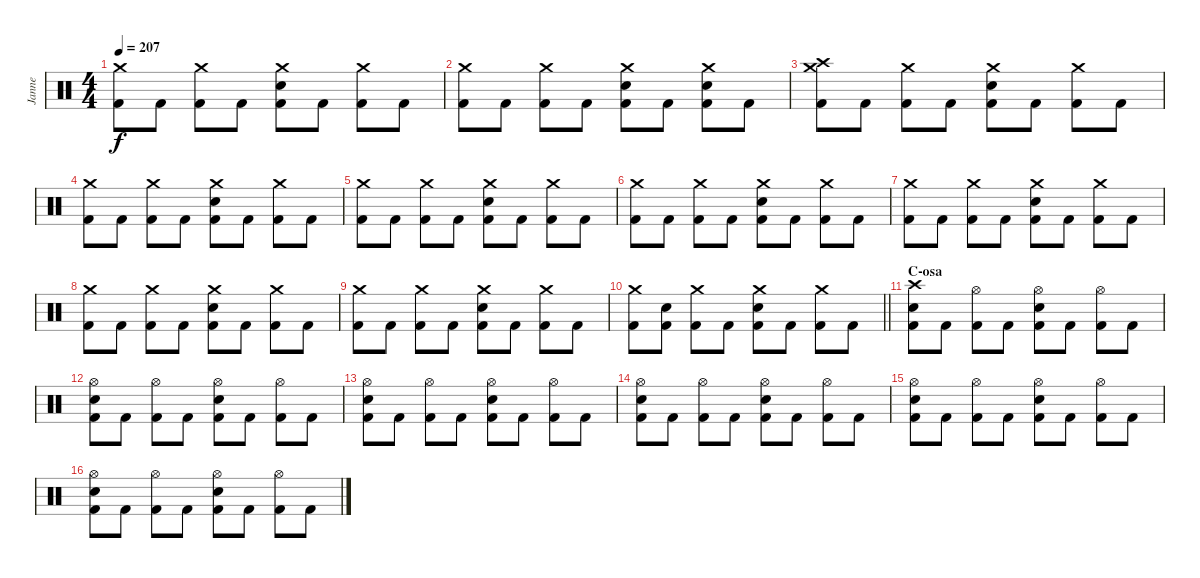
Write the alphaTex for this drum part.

\track ("Janne" "Janne") {instrument percussion}
\staff {score}
\articulation defaults
\ts (4 4)
\tempo 207
\clef neutral
\ks c
("Crash medium (hit)" "Kick (hit) 2").8{dy f} "Kick (hit) 2".8 ("Crash medium (hit)" "Kick (hit) 2").8 "Kick (hit) 2".8 ("Crash medium (hit)" "Electric Snare (hit)" "Kick (hit) 2").8 "Kick (hit) 2".8 ("Crash medium (hit)" "Kick (hit) 2").8 "Kick (hit) 2".8 |
("Crash medium (hit)" "Kick (hit) 2").8 "Kick (hit) 2".8 ("Crash medium (hit)" "Kick (hit) 2").8 "Kick (hit) 2".8 ("Crash medium (hit)" "Electric Snare (hit)" "Kick (hit) 2").8 "Kick (hit) 2".8 ("Crash medium (hit)" "Electric Snare (hit)" "Kick (hit) 2").8 "Kick (hit) 2".8 |
("Crash high (hit)" "Crash medium (hit)" "Kick (hit) 2").8 "Kick (hit) 2".8 ("Crash medium (hit)" "Kick (hit) 2").8 "Kick (hit) 2".8 ("Crash medium (hit)" "Electric Snare (hit)" "Kick (hit) 2").8 "Kick (hit) 2".8 ("Crash medium (hit)" "Kick (hit) 2").8 "Kick (hit) 2".8 |
("Crash medium (hit)" "Kick (hit) 2").8 "Kick (hit) 2".8 ("Crash medium (hit)" "Kick (hit) 2").8 "Kick (hit) 2".8 ("Crash medium (hit)" "Electric Snare (hit)" "Kick (hit) 2").8 "Kick (hit) 2".8 ("Crash medium (hit)" "Kick (hit) 2").8 "Kick (hit) 2".8 |
("Crash medium (hit)" "Kick (hit) 2").8 "Kick (hit) 2".8 ("Crash medium (hit)" "Kick (hit) 2").8 "Kick (hit) 2".8 ("Crash medium (hit)" "Electric Snare (hit)" "Kick (hit) 2").8 "Kick (hit) 2".8 ("Crash medium (hit)" "Kick (hit) 2").8 "Kick (hit) 2".8 |
("Crash medium (hit)" "Kick (hit) 2").8 "Kick (hit) 2".8 ("Crash medium (hit)" "Kick (hit) 2").8 "Kick (hit) 2".8 ("Crash medium (hit)" "Electric Snare (hit)" "Kick (hit) 2").8 "Kick (hit) 2".8 ("Crash medium (hit)" "Kick (hit) 2").8 "Kick (hit) 2".8 |
("Crash medium (hit)" "Kick (hit) 2").8 "Kick (hit) 2".8 ("Crash medium (hit)" "Kick (hit) 2").8 "Kick (hit) 2".8 ("Crash medium (hit)" "Electric Snare (hit)" "Kick (hit) 2").8 "Kick (hit) 2".8 ("Crash medium (hit)" "Kick (hit) 2").8 "Kick (hit) 2".8 |
("Crash medium (hit)" "Kick (hit) 2").8 "Kick (hit) 2".8 ("Crash medium (hit)" "Kick (hit) 2").8 "Kick (hit) 2".8 ("Crash medium (hit)" "Electric Snare (hit)" "Kick (hit) 2").8 "Kick (hit) 2".8 ("Crash medium (hit)" "Kick (hit) 2").8 "Kick (hit) 2".8 |
("Crash medium (hit)" "Kick (hit) 2").8 "Kick (hit) 2".8 ("Crash medium (hit)" "Kick (hit) 2").8 "Kick (hit) 2".8 ("Crash medium (hit)" "Electric Snare (hit)" "Kick (hit) 2").8 "Kick (hit) 2".8 ("Crash medium (hit)" "Kick (hit) 2").8 "Kick (hit) 2".8 |
\barLineRight lightlight
("Crash medium (hit)" "Kick (hit) 2").8 ("Electric Snare (hit)" "Kick (hit) 2").8 ("Crash medium (hit)" "Kick (hit) 2").8 "Kick (hit) 2".8 ("Crash medium (hit)" "Electric Snare (hit)" "Kick (hit) 2").8 "Kick (hit) 2".8 ("Crash medium (hit)" "Kick (hit) 2").8 "Kick (hit) 2".8 |
\section ("" "C-osa")
("Crash high (hit)" "Electric Snare (hit)" "Kick (hit) 2").8 "Kick (hit) 2".8 ("Hi-Hat (open)" "Kick (hit) 2").8 "Kick (hit) 2".8 ("Hi-Hat (open)" "Electric Snare (hit)" "Kick (hit) 2").8 "Kick (hit) 2".8 ("Hi-Hat (open)" "Kick (hit) 2").8 "Kick (hit) 2".8 |
("Hi-Hat (open)" "Electric Snare (hit)" "Kick (hit) 2").8 "Kick (hit) 2".8 ("Hi-Hat (open)" "Kick (hit) 2").8 "Kick (hit) 2".8 ("Hi-Hat (open)" "Electric Snare (hit)" "Kick (hit) 2").8 "Kick (hit) 2".8 ("Hi-Hat (open)" "Kick (hit) 2").8 "Kick (hit) 2".8 |
("Hi-Hat (open)" "Electric Snare (hit)" "Kick (hit) 2").8 "Kick (hit) 2".8 ("Hi-Hat (open)" "Kick (hit) 2").8 "Kick (hit) 2".8 ("Hi-Hat (open)" "Electric Snare (hit)" "Kick (hit) 2").8 "Kick (hit) 2".8 ("Hi-Hat (open)" "Kick (hit) 2").8 "Kick (hit) 2".8 |
("Hi-Hat (open)" "Electric Snare (hit)" "Kick (hit) 2").8 "Kick (hit) 2".8 ("Hi-Hat (open)" "Kick (hit) 2").8 "Kick (hit) 2".8 ("Hi-Hat (open)" "Electric Snare (hit)" "Kick (hit) 2").8 "Kick (hit) 2".8 ("Hi-Hat (open)" "Kick (hit) 2").8 "Kick (hit) 2".8 |
("Hi-Hat (open)" "Electric Snare (hit)" "Kick (hit) 2").8 "Kick (hit) 2".8 ("Hi-Hat (open)" "Kick (hit) 2").8 "Kick (hit) 2".8 ("Hi-Hat (open)" "Electric Snare (hit)" "Kick (hit) 2").8 "Kick (hit) 2".8 ("Hi-Hat (open)" "Kick (hit) 2").8 "Kick (hit) 2".8 |
("Hi-Hat (open)" "Electric Snare (hit)" "Kick (hit) 2").8 "Kick (hit) 2".8 ("Hi-Hat (open)" "Kick (hit) 2").8 "Kick (hit) 2".8 ("Hi-Hat (open)" "Electric Snare (hit)" "Kick (hit) 2").8 "Kick (hit) 2".8 ("Hi-Hat (open)" "Kick (hit) 2").8 "Kick (hit) 2".8
